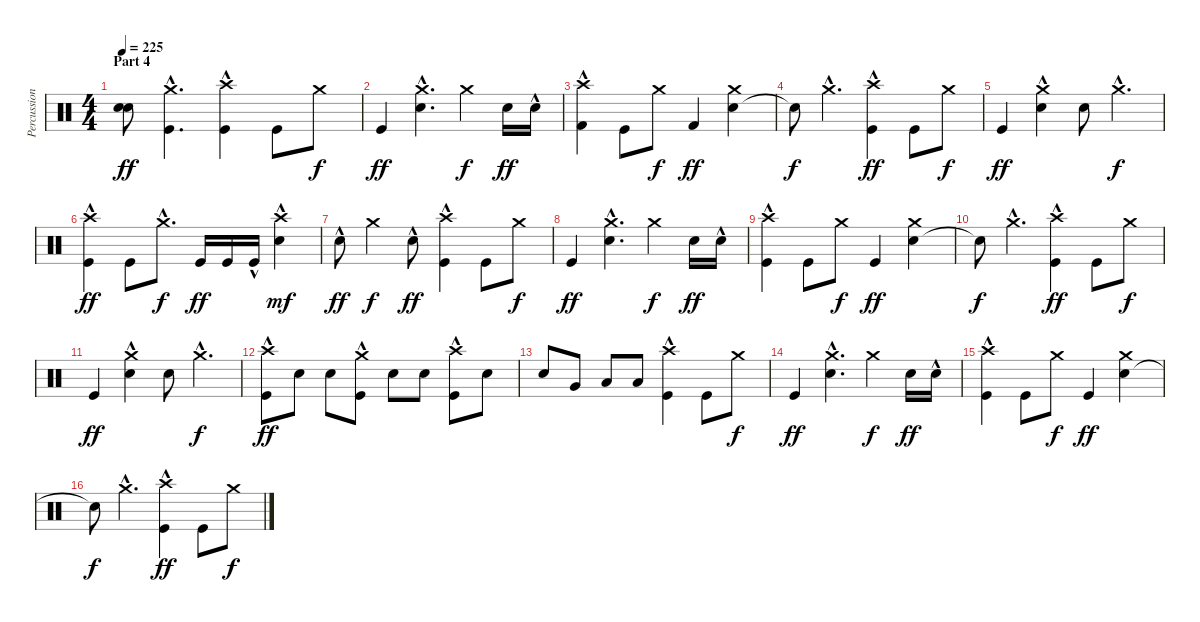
\track ("Percussions" "Percussion") {instrument percussion}
\staff {score}
\articulation defaults
\ts (4 4)
\section ("" "Part 4")
\tempo 225
\clef neutral
\ks c
("Snare (hit)"{t} "Snare (hit)"{t}).8{dy ff} ("Kick (hit)"{hac} "Crash medium (hit)"{hac}).4{d} ("Kick (hit)" "Crash high (hit)"{hac}).4 "Kick (hit)".8 "Crash medium (hit)".8{dy f} |
"Kick (hit)".4{dy ff} ("Electric Snare (hit)"{hac} "Crash medium (hit)"{hac}).4{d} "Crash medium (hit)".4{dy f} "Electric Snare (hit)".16{dy ff} "Electric Snare (hit)"{hac}.16 |
("Kick (hit) 2" "Crash high (hit)"{hac}).4 "Kick (hit)".8 "Crash medium (hit)".8{dy f} "Kick (hit) 2".4{dy ff} ("Electric Snare (hit)" "Crash medium (hit)").4 |
"Snare (hit)"{t}.8{dy f} "Crash medium (hit)"{hac}.4{d} ("Kick (hit)" "Crash high (hit)"{hac}).4{dy ff} "Kick (hit)".8 "Crash medium (hit)".8{dy f} |
"Kick (hit)".4{dy ff} ("Electric Snare (hit)" "Crash medium (hit)"{hac}).4 "Electric Snare (hit)".8 "Crash medium (hit)"{hac}.4{d dy f} |
("Kick (hit)" "Crash high (hit)"{hac}).4{dy ff} "Kick (hit)".8 "Crash medium (hit)"{hac}.8{d dy f} "Kick (hit)".16{dy ff} "Kick (hit)".16 "Kick (hit)"{hac}.16 ("Electric Snare (hit)" "Crash high (hit)"{hac}).4{dy mf} |
"Electric Snare (hit)"{hac}.8{dy ff} "Crash medium (hit)".4{dy f} "Electric Snare (hit)"{hac}.8{dy ff} ("Kick (hit)" "Crash high (hit)"{hac}).4 "Kick (hit)".8 "Crash medium (hit)".8{dy f} |
"Kick (hit)".4{dy ff} ("Electric Snare (hit)" "Crash medium (hit)"{hac}).4{d} "Crash medium (hit)".4{dy f} "Electric Snare (hit)".16{dy ff} "Electric Snare (hit)"{hac}.16 |
("Kick (hit)" "Crash high (hit)"{hac}).4 "Kick (hit)".8 "Crash medium (hit)".8{dy f} "Kick (hit)".4{dy ff} ("Electric Snare (hit)" "Crash medium (hit)").4 |
"Snare (hit)"{t}.8{dy f} "Crash medium (hit)"{hac}.4{d} ("Kick (hit)" "Crash high (hit)"{hac}).4{dy ff} "Kick (hit)".8 "Crash medium (hit)".8{dy f} |
"Kick (hit)".4{dy ff} ("Electric Snare (hit)" "Crash medium (hit)"{hac}).4 "Electric Snare (hit)".8 "Crash medium (hit)"{hac}.4{d dy f} |
("Kick (hit)"{hac} "Crash high (hit)"{hac}).8{dy ff} "Electric Snare (hit)".8 "Electric Snare (hit)".8 ("Kick (hit)"{hac} "Crash medium (hit)"{hac}).8 "Electric Snare (hit)".8 "Electric Snare (hit)".8 ("Kick (hit)"{hac} "Crash high (hit)"{hac}).8 "Electric Snare (hit)".8 |
"Electric Snare (hit)".8 "Very Low Tom (hit)".8 "Low Floor Tom (hit)".8 "Low Floor Tom (hit)".8 ("Kick (hit)" "Crash high (hit)"{hac}).4 "Kick (hit)".8 "Crash medium (hit)".8{dy f} |
"Kick (hit)".4{dy ff} ("Electric Snare (hit)" "Crash medium (hit)"{hac}).4{d} "Crash medium (hit)".4{dy f} "Electric Snare (hit)".16{dy ff} "Electric Snare (hit)"{hac}.16 |
("Kick (hit)" "Crash high (hit)"{hac}).4 "Kick (hit)".8 "Crash medium (hit)".8{dy f} "Kick (hit)".4{dy ff} ("Electric Snare (hit)" "Crash medium (hit)").4 |
"Snare (hit)"{t}.8{dy f} "Crash medium (hit)"{hac}.4{d} ("Kick (hit)" "Crash high (hit)"{hac}).4{dy ff} "Kick (hit)".8 "Crash medium (hit)".8{dy f}
